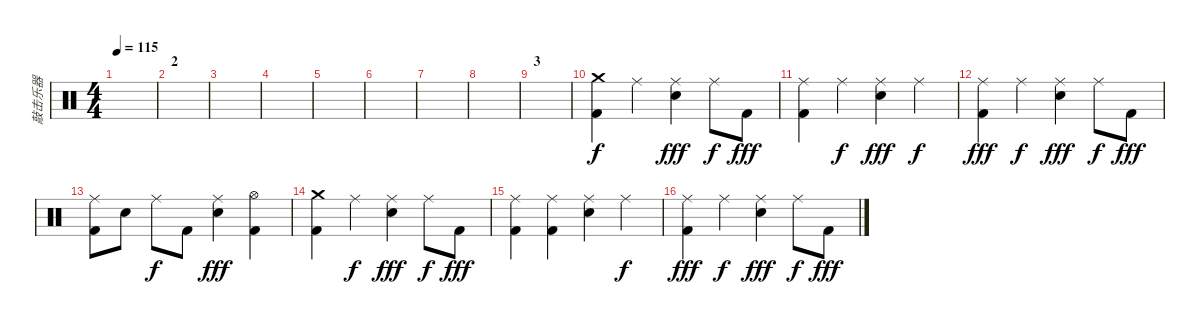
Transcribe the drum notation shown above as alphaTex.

\track ("敲击乐器" "敲击乐器") {instrument percussion}
\staff {score}
\articulation defaults
\ts (4 4)
\tempo 115
\clef neutral
\ks c
|
\section ("" "2")
|
|
|
|
|
|
|
\section ("" "3")
|
("Crash medium (hit)" "Kick (hit) 2").4 "Ride (middle)".4{dy f} ("Ride (middle)" "Snare (hit) 2").4{dy fff} "Ride (middle)".8{dy f} "Kick (hit) 2".8{dy fff} |
("Ride (middle)" "Kick (hit) 2").4 "Ride (middle)".4{dy f} ("Ride (middle)" "Snare (hit) 2").4{dy fff} "Ride (middle)".4{dy f} |
("Ride (middle)" "Kick (hit) 2").4{dy fff} "Ride (middle)".4{dy f} ("Ride (middle)" "Snare (hit) 2").4{dy fff} "Ride (middle)".8{dy f} "Kick (hit) 2".8{dy fff} |
("Ride (middle)" "Kick (hit) 2").8 "Snare (hit) 2".8 "Ride (middle)".8{dy f} "Kick (hit) 2".8 ("Ride (middle)" "Snare (hit) 2").4{dy fff} ("Hi-Hat (open)" "Kick (hit) 2").4 |
("Crash medium (hit)" "Kick (hit) 2").4 "Ride (middle)".4{dy f} ("Ride (middle)" "Snare (hit) 2").4{dy fff} "Ride (middle)".8{dy f} "Kick (hit) 2".8{dy fff} |
("Ride (middle)" "Kick (hit) 2").4 ("Ride (middle)" "Kick (hit) 2").4 ("Ride (middle)" "Snare (hit) 2").4 "Ride (middle)".4{dy f} |
("Ride (middle)" "Kick (hit) 2").4{dy fff} "Ride (middle)".4{dy f} ("Ride (middle)" "Snare (hit) 2").4{dy fff} "Ride (middle)".8{dy f} "Kick (hit) 2".8{dy fff}
